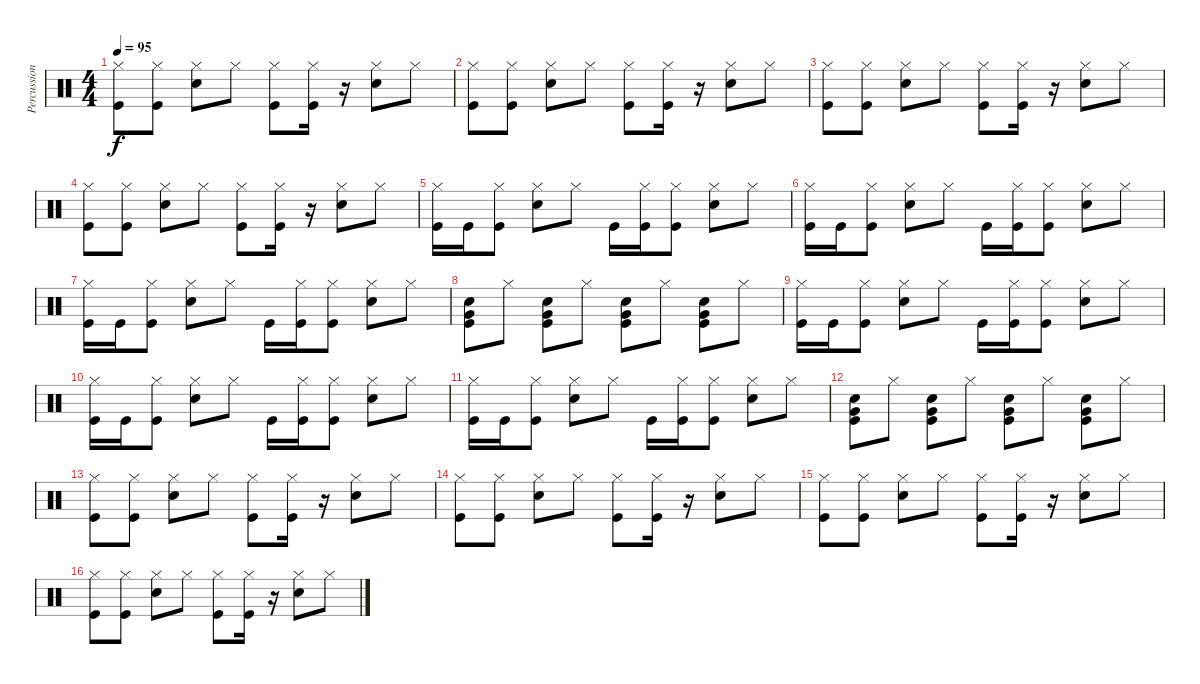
\track ("Percussion" "Percussion") {instrument percussion}
\staff {score}
\articulation defaults
\ts (4 4)
\tempo 95
\clef neutral
\ks c
("Hi-Hat (closed)" "Kick (hit)").8{dy f} ("Hi-Hat (closed)" "Kick (hit)").8 ("Hi-Hat (closed)" "Snare (hit) 2").8 "Hi-Hat (closed)".8 ("Hi-Hat (closed)" "Kick (hit)").8 ("Hi-Hat (closed)" "Kick (hit)").16 r.16 ("Hi-Hat (closed)" "Snare (hit) 2").8 "Hi-Hat (closed)".8 |
("Hi-Hat (closed)" "Kick (hit)").8 ("Hi-Hat (closed)" "Kick (hit)").8 ("Hi-Hat (closed)" "Snare (hit) 2").8 "Hi-Hat (closed)".8 ("Hi-Hat (closed)" "Kick (hit)").8 ("Hi-Hat (closed)" "Kick (hit)").16 r.16 ("Hi-Hat (closed)" "Snare (hit) 2").8 "Hi-Hat (closed)".8 |
("Hi-Hat (closed)" "Kick (hit)").8 ("Hi-Hat (closed)" "Kick (hit)").8 ("Hi-Hat (closed)" "Snare (hit) 2").8 "Hi-Hat (closed)".8 ("Hi-Hat (closed)" "Kick (hit)").8 ("Hi-Hat (closed)" "Kick (hit)").16 r.16 ("Hi-Hat (closed)" "Snare (hit) 2").8 "Hi-Hat (closed)".8 |
("Hi-Hat (closed)" "Kick (hit)").8 ("Hi-Hat (closed)" "Kick (hit)").8 ("Hi-Hat (closed)" "Snare (hit) 2").8 "Hi-Hat (closed)".8 ("Hi-Hat (closed)" "Kick (hit)").8 ("Hi-Hat (closed)" "Kick (hit)").16 r.16 ("Hi-Hat (closed)" "Snare (hit) 2").8 "Hi-Hat (closed)".8 |
("Hi-Hat (closed)" "Kick (hit)").16 "Kick (hit)".16 ("Hi-Hat (closed)" "Kick (hit)").8 ("Hi-Hat (closed)" "Snare (hit) 2").8 "Hi-Hat (closed)".8 "Kick (hit)".16 ("Hi-Hat (closed)" "Kick (hit)").16 ("Hi-Hat (closed)" "Kick (hit)").8 ("Hi-Hat (closed)" "Snare (hit) 2").8 "Hi-Hat (closed)".8 |
("Hi-Hat (closed)" "Kick (hit)").16 "Kick (hit)".16 ("Hi-Hat (closed)" "Kick (hit)").8 ("Hi-Hat (closed)" "Snare (hit) 2").8 "Hi-Hat (closed)".8 "Kick (hit)".16 ("Hi-Hat (closed)" "Kick (hit)").16 ("Hi-Hat (closed)" "Kick (hit)").8 ("Hi-Hat (closed)" "Snare (hit) 2").8 "Hi-Hat (closed)".8 |
("Hi-Hat (closed)" "Kick (hit)").16 "Kick (hit)".16 ("Hi-Hat (closed)" "Kick (hit)").8 ("Hi-Hat (closed)" "Snare (hit) 2").8 "Hi-Hat (closed)".8 "Kick (hit)".16 ("Hi-Hat (closed)" "Kick (hit)").16 ("Hi-Hat (closed)" "Kick (hit)").8 ("Hi-Hat (closed)" "Snare (hit) 2").8 "Hi-Hat (closed)".8 |
("Very Low Tom (hit)" "Snare (hit) 2" "Kick (hit)").8 "Hi-Hat (closed)".8 ("Snare (hit) 2" "Kick (hit)" "Very Low Tom (hit)").8 "Hi-Hat (closed)".8 ("Snare (hit) 2" "Kick (hit)" "Very Low Tom (hit)").8 "Hi-Hat (closed)".8 ("Snare (hit) 2" "Very Low Tom (hit)" "Kick (hit)").8 "Hi-Hat (closed)".8 |
("Hi-Hat (closed)" "Kick (hit)").16 "Kick (hit)".16 ("Hi-Hat (closed)" "Kick (hit)").8 ("Hi-Hat (closed)" "Snare (hit) 2").8 "Hi-Hat (closed)".8 "Kick (hit)".16 ("Hi-Hat (closed)" "Kick (hit)").16 ("Hi-Hat (closed)" "Kick (hit)").8 ("Hi-Hat (closed)" "Snare (hit) 2").8 "Hi-Hat (closed)".8 |
("Hi-Hat (closed)" "Kick (hit)").16 "Kick (hit)".16 ("Hi-Hat (closed)" "Kick (hit)").8 ("Hi-Hat (closed)" "Snare (hit) 2").8 "Hi-Hat (closed)".8 "Kick (hit)".16 ("Hi-Hat (closed)" "Kick (hit)").16 ("Hi-Hat (closed)" "Kick (hit)").8 ("Hi-Hat (closed)" "Snare (hit) 2").8 "Hi-Hat (closed)".8 |
("Hi-Hat (closed)" "Kick (hit)").16 "Kick (hit)".16 ("Hi-Hat (closed)" "Kick (hit)").8 ("Hi-Hat (closed)" "Snare (hit) 2").8 "Hi-Hat (closed)".8 "Kick (hit)".16 ("Hi-Hat (closed)" "Kick (hit)").16 ("Hi-Hat (closed)" "Kick (hit)").8 ("Hi-Hat (closed)" "Snare (hit) 2").8 "Hi-Hat (closed)".8 |
("Very Low Tom (hit)" "Snare (hit) 2" "Kick (hit)").8 "Hi-Hat (closed)".8 ("Snare (hit) 2" "Kick (hit)" "Very Low Tom (hit)").8 "Hi-Hat (closed)".8 ("Snare (hit) 2" "Kick (hit)" "Very Low Tom (hit)").8 "Hi-Hat (closed)".8 ("Snare (hit) 2" "Very Low Tom (hit)" "Kick (hit)").8 "Hi-Hat (closed)".8 |
("Hi-Hat (closed)" "Kick (hit)").8 ("Hi-Hat (closed)" "Kick (hit)").8 ("Hi-Hat (closed)" "Snare (hit) 2").8 "Hi-Hat (closed)".8 ("Hi-Hat (closed)" "Kick (hit)").8 ("Hi-Hat (closed)" "Kick (hit)").16 r.16 ("Hi-Hat (closed)" "Snare (hit) 2").8 "Hi-Hat (closed)".8 |
("Hi-Hat (closed)" "Kick (hit)").8 ("Hi-Hat (closed)" "Kick (hit)").8 ("Hi-Hat (closed)" "Snare (hit) 2").8 "Hi-Hat (closed)".8 ("Hi-Hat (closed)" "Kick (hit)").8 ("Hi-Hat (closed)" "Kick (hit)").16 r.16 ("Hi-Hat (closed)" "Snare (hit) 2").8 "Hi-Hat (closed)".8 |
("Hi-Hat (closed)" "Kick (hit)").8 ("Hi-Hat (closed)" "Kick (hit)").8 ("Hi-Hat (closed)" "Snare (hit) 2").8 "Hi-Hat (closed)".8 ("Hi-Hat (closed)" "Kick (hit)").8 ("Hi-Hat (closed)" "Kick (hit)").16 r.16 ("Hi-Hat (closed)" "Snare (hit) 2").8 "Hi-Hat (closed)".8 |
("Hi-Hat (closed)" "Kick (hit)").8 ("Hi-Hat (closed)" "Kick (hit)").8 ("Hi-Hat (closed)" "Snare (hit) 2").8 "Hi-Hat (closed)".8 ("Hi-Hat (closed)" "Kick (hit)").8 ("Hi-Hat (closed)" "Kick (hit)").16 r.16 ("Hi-Hat (closed)" "Snare (hit) 2").8 "Hi-Hat (closed)".8
